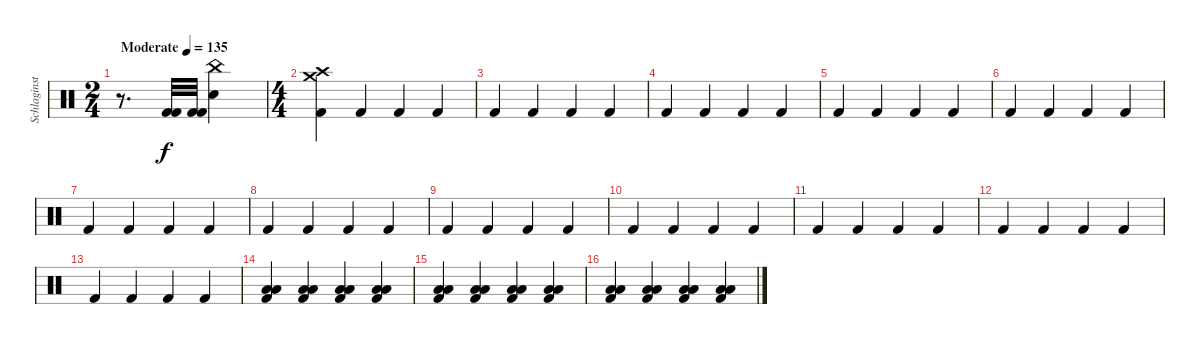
\track ("Schlaginstrumente - Auswahl" "Schlaginst") {instrument percussion}
\staff {score}
\articulation defaults
\ts (2 4)
\tempo (135 "Moderate")
\clef neutral
\ks c
r.8{d dy f} ("Kick (hit) 2" "Kick (hit) 2").32 ("Kick (hit) 2" "Kick (hit) 2").32 ("China (hit)" "Snare (hit) 2").4 |
\ts (4 4)
("Crash high (hit)" "Crash medium (hit)" "Kick (hit) 2").4 "Kick (hit) 2".4 "Kick (hit) 2".4 "Kick (hit) 2".4 |
"Kick (hit) 2".4 "Kick (hit) 2".4 "Kick (hit) 2".4 "Kick (hit) 2".4 |
"Kick (hit) 2".4 "Kick (hit) 2".4 "Kick (hit) 2".4 "Kick (hit) 2".4 |
"Kick (hit) 2".4 "Kick (hit) 2".4 "Kick (hit) 2".4 "Kick (hit) 2".4 |
"Kick (hit) 2".4 "Kick (hit) 2".4 "Kick (hit) 2".4 "Kick (hit) 2".4 |
"Kick (hit) 2".4 "Kick (hit) 2".4 "Kick (hit) 2".4 "Kick (hit) 2".4 |
"Kick (hit) 2".4 "Kick (hit) 2".4 "Kick (hit) 2".4 "Kick (hit) 2".4 |
"Kick (hit) 2".4 "Kick (hit) 2".4 "Kick (hit) 2".4 "Kick (hit) 2".4 |
"Kick (hit) 2".4 "Kick (hit) 2".4 "Kick (hit) 2".4 "Kick (hit) 2".4 |
"Kick (hit) 2".4 "Kick (hit) 2".4 "Kick (hit) 2".4 "Kick (hit) 2".4 |
"Kick (hit) 2".4 "Kick (hit) 2".4 "Kick (hit) 2".4 "Kick (hit) 2".4 |
"Kick (hit) 2".4 "Kick (hit) 2".4 "Kick (hit) 2".4 "Kick (hit) 2".4 |
("Low Tom (hit)" "Low Floor Tom (hit)" "Kick (hit) 2").4 ("Low Tom (hit)" "Low Floor Tom (hit)" "Kick (hit) 2").4 ("Low Tom (hit)" "Low Floor Tom (hit)" "Kick (hit) 2").4 ("Low Tom (hit)" "Low Floor Tom (hit)" "Kick (hit) 2").4 |
("Low Tom (hit)" "Low Floor Tom (hit)" "Kick (hit) 2").4 ("Low Tom (hit)" "Low Floor Tom (hit)" "Kick (hit) 2").4 ("Low Tom (hit)" "Low Floor Tom (hit)" "Kick (hit) 2").4 ("Low Tom (hit)" "Low Floor Tom (hit)" "Kick (hit) 2").4 |
("Low Tom (hit)" "Low Floor Tom (hit)" "Kick (hit) 2").4 ("Low Tom (hit)" "Low Floor Tom (hit)" "Kick (hit) 2").4 ("Low Tom (hit)" "Low Floor Tom (hit)" "Kick (hit) 2").4 ("Low Tom (hit)" "Low Floor Tom (hit)" "Kick (hit) 2").4
